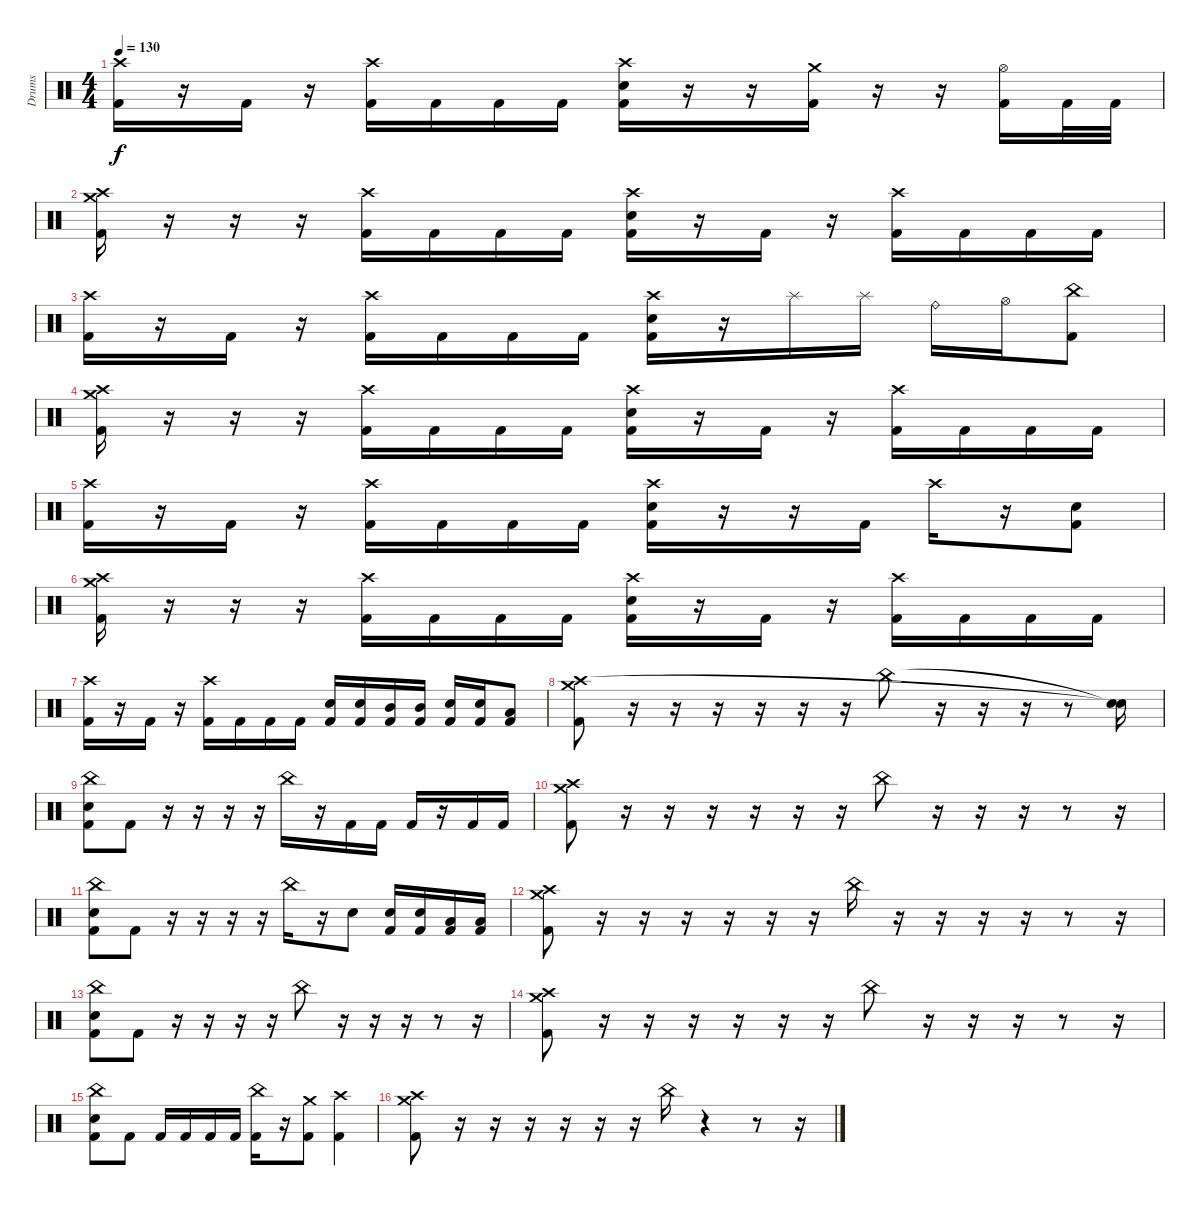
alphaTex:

\track ("Drums" "Drums") {instrument percussion}
\staff {score}
\articulation defaults
\ts (4 4)
\tempo 130
\clef neutral
\ks c
("Crash high (hit)" "Kick (hit) 2").16{dy f} r.16 "Kick (hit) 2".16 r.16 ("Crash high (hit)" "Kick (hit) 2").16 "Kick (hit) 2".16 "Kick (hit) 2".16 "Kick (hit) 2".16 ("Crash high (hit)" "Electric Snare (hit)" "Kick (hit) 2").16 r.16 r.16 ("Crash medium (hit)" "Kick (hit) 2").16 r.16 r.16 ("Hi-Hat (open)" "Kick (hit) 2").16 "Kick (hit) 2".32 "Kick (hit) 2".32 |
("Crash high (hit)" "Crash medium (hit)" "Kick (hit) 2").16 r.16 r.16 r.16 ("Crash high (hit)" "Kick (hit) 2").16 "Kick (hit) 2".16 "Kick (hit) 2".16 "Kick (hit) 2".16 ("Crash high (hit)" "Electric Snare (hit)" "Kick (hit) 2").16 r.16 "Kick (hit) 2".16 r.16 ("Crash high (hit)" "Kick (hit) 2").16 "Kick (hit) 2".16 "Kick (hit) 2".16 "Kick (hit) 2".16 |
("Crash high (hit)" "Kick (hit) 2").16 r.16 "Kick (hit) 2".16 r.16 ("Crash high (hit)" "Kick (hit) 2").16 "Kick (hit) 2".16 "Kick (hit) 2".16 "Kick (hit) 2".16 ("Crash high (hit)" "Electric Snare (hit)" "Kick (hit) 2").16 r.16 "Splash (hit)".16 "Splash (hit)".16 "Ride (bell)".16 "Hi-Hat (open)".16 ("China (hit)" "Kick (hit) 2").8 |
("Crash high (hit)" "Crash medium (hit)" "Kick (hit) 2").16 r.16 r.16 r.16 ("Crash high (hit)" "Kick (hit) 2").16 "Kick (hit) 2".16 "Kick (hit) 2".16 "Kick (hit) 2".16 ("Crash high (hit)" "Electric Snare (hit)" "Kick (hit) 2").16 r.16 "Kick (hit) 2".16 r.16 ("Crash high (hit)" "Kick (hit) 2").16 "Kick (hit) 2".16 "Kick (hit) 2".16 "Kick (hit) 2".16 |
("Crash high (hit)" "Kick (hit) 2").16 r.16 "Kick (hit) 2".16 r.16 ("Crash high (hit)" "Kick (hit) 2").16 "Kick (hit) 2".16 "Kick (hit) 2".16 "Kick (hit) 2".16 ("Crash high (hit)" "Electric Snare (hit)" "Kick (hit) 2").16 r.16 r.16 "Kick (hit) 2".16 "Crash high (hit)".16 r.16 ("Electric Snare (hit)" "Kick (hit) 2").8 |
("Crash high (hit)" "Crash medium (hit)" "Kick (hit) 2").16 r.16 r.16 r.16 ("Crash high (hit)" "Kick (hit) 2").16 "Kick (hit) 2".16 "Kick (hit) 2".16 "Kick (hit) 2".16 ("Crash high (hit)" "Electric Snare (hit)" "Kick (hit) 2").16 r.16 "Kick (hit) 2".16 r.16 ("Crash high (hit)" "Kick (hit) 2").16 "Kick (hit) 2".16 "Kick (hit) 2".16 "Kick (hit) 2".16 |
("Crash high (hit)" "Kick (hit) 2").16 r.16 "Kick (hit) 2".16 r.16 ("Crash high (hit)" "Kick (hit) 2").16 "Kick (hit) 2".16 "Kick (hit) 2".16 "Kick (hit) 2".16 ("Electric Snare (hit)" "Kick (hit) 2").16 ("Electric Snare (hit)" "Kick (hit) 2").16 ("Mid Tom (hit)" "Kick (hit) 2").16 ("Mid Tom (hit)" "Kick (hit) 2").16 ("Electric Snare (hit)" "Kick (hit) 2").16 ("Electric Snare (hit)" "Kick (hit) 2").16 ("Low Tom (hit)" "Kick (hit) 2").8 |
("Crash medium (hit)" "Crash high (hit)" "Kick (hit) 2").8 r.16 r.16 r.16 r.16 r.16 r.16 "China (hit)".8 r.16 r.16 r.16 r.8 ("Snare (hit)"{t} "Snare (hit)"{t}).16 |
("China (hit)" "Electric Snare (hit)" "Kick (hit) 2").8 "Kick (hit) 2".8 r.16 r.16 r.16 r.16 "China (hit)".16 r.16 "Kick (hit) 2".16 "Kick (hit) 2".16 "Kick (hit) 2".16 r.16 "Kick (hit) 2".16 "Kick (hit) 2".16 |
("Crash high (hit)" "Crash medium (hit)" "Kick (hit) 2").8 r.16 r.16 r.16 r.16 r.16 r.16 "China (hit)".8 r.16 r.16 r.16 r.8 r.16 |
("China (hit)" "Electric Snare (hit)" "Kick (hit) 2").8 "Kick (hit) 2".8 r.16 r.16 r.16 r.16 "China (hit)".16 r.16 "Electric Snare (hit)".8 ("Electric Snare (hit)" "Kick (hit) 2").16 ("Electric Snare (hit)" "Kick (hit) 2").16 ("Low Tom (hit)" "Kick (hit) 2").16 ("Low Tom (hit)" "Kick (hit) 2").16 |
("Crash high (hit)" "Crash medium (hit)" "Kick (hit) 2").8 r.16 r.16 r.16 r.16 r.16 r.16 "China (hit)".16 r.16 r.16 r.16 r.16 r.8 r.16 |
("China (hit)" "Electric Snare (hit)" "Kick (hit) 2").8 "Kick (hit) 2".8 r.16 r.16 r.16 r.16 "China (hit)".8 r.16 r.16 r.16 r.8 r.16 |
("Crash medium (hit)" "Crash high (hit)" "Kick (hit) 2").8 r.16 r.16 r.16 r.16 r.16 r.16 "China (hit)".8 r.16 r.16 r.16 r.8 r.16 |
("China (hit)" "Electric Snare (hit)" "Kick (hit) 2").8 "Kick (hit) 2".8 "Kick (hit) 2".16 "Kick (hit) 2".16 "Kick (hit) 2".16 "Kick (hit) 2".16 ("China (hit)" "Kick (hit) 2").16 r.16 ("Crash medium (hit)" "Kick (hit) 2").8 ("Crash high (hit)" "Kick (hit) 2").4 |
("Crash medium (hit)" "Crash high (hit)" "Kick (hit) 2").8 r.16 r.16 r.16 r.16 r.16 r.16 "China (hit)".16 r.4 r.8 r.16
